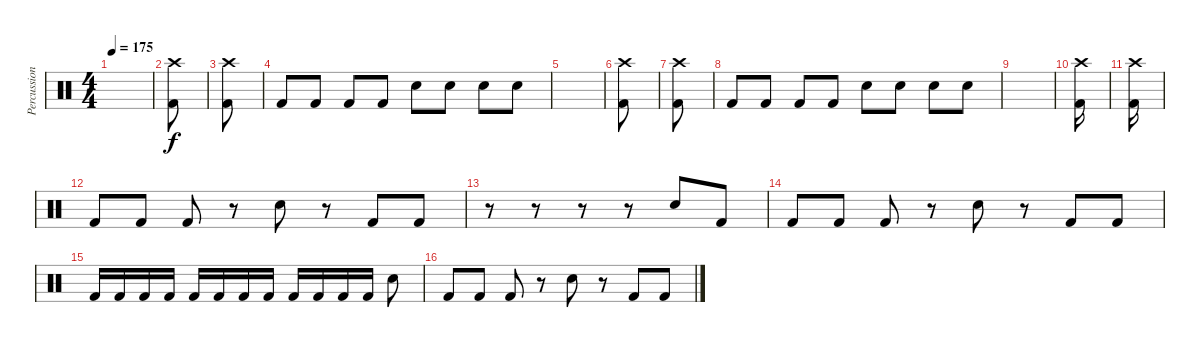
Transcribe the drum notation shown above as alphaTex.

\track ("Percussion" "Percussion") {instrument percussion}
\staff {score}
\articulation defaults
\ts (4 4)
\tempo 175
\clef neutral
\ks c
|
("Crash high (hit)" "Kick (hit) 2").8 |
("Crash high (hit)" "Kick (hit) 2").8 |
"Kick (hit) 2".8 "Kick (hit) 2".8 "Kick (hit) 2".8 "Kick (hit) 2".8 "Electric Snare (hit)".8 "Electric Snare (hit)".8 "Electric Snare (hit)".8 "Electric Snare (hit)".8 |
|
("Crash high (hit)" "Kick (hit) 2").8 |
("Crash high (hit)" "Kick (hit) 2").8 |
"Kick (hit) 2".8 "Kick (hit) 2".8 "Kick (hit) 2".8 "Kick (hit) 2".8 "Electric Snare (hit)".8 "Electric Snare (hit)".8 "Electric Snare (hit)".8 "Electric Snare (hit)".8 |
|
("Crash high (hit)" "Kick (hit) 2").16 |
("Crash high (hit)" "Kick (hit) 2").16 |
"Kick (hit) 2".8 "Kick (hit) 2".8 "Kick (hit) 2".8 r.8 "Electric Snare (hit)".8 r.8 "Kick (hit) 2".8 "Kick (hit) 2".8 |
r.8 r.8 r.8 r.8 "Electric Snare (hit)".8 "Kick (hit) 2".8 |
"Kick (hit) 2".8 "Kick (hit) 2".8 "Kick (hit) 2".8 r.8 "Electric Snare (hit)".8 r.8 "Kick (hit) 2".8 "Kick (hit) 2".8 |
"Kick (hit) 2".16 "Kick (hit) 2".16 "Kick (hit) 2".16 "Kick (hit) 2".16 "Kick (hit) 2".16 "Kick (hit) 2".16 "Kick (hit) 2".16 "Kick (hit) 2".16 "Kick (hit) 2".16 "Kick (hit) 2".16 "Kick (hit) 2".16 "Kick (hit) 2".16 "Electric Snare (hit)".8 |
"Kick (hit) 2".8 "Kick (hit) 2".8 "Kick (hit) 2".8 r.8 "Electric Snare (hit)".8 r.8 "Kick (hit) 2".8 "Kick (hit) 2".8
